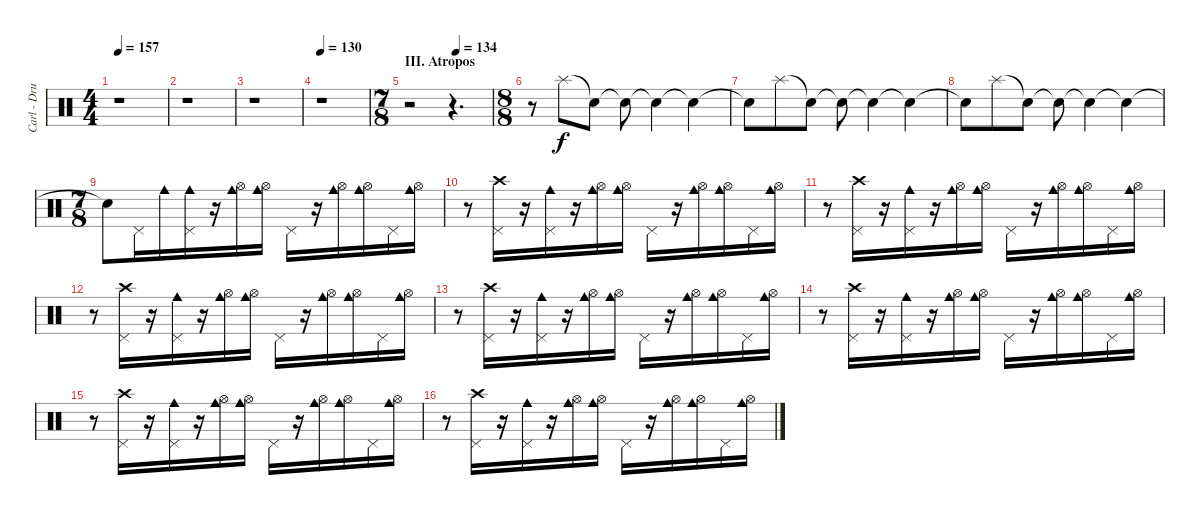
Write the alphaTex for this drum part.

\track ("Carl - Drums" "Carl - Dru") {instrument percussion}
\staff {score}
\articulation defaults
\ts (4 4)
\tempo 157
\clef neutral
\ks c
r.1{dy f} |
r.1 |
r.1 |
\tempo 130
r.1 |
\ts (7 8)
\section ("" "III. Atropos")
\tempo (134 0.5714285714285714)
r.2 r.4{d} |
\ts (8 8)
r.8 "Splash (hit)".8 "Snare (hit)"{t}.8 "Snare (hit)"{t}.8 "Snare (hit)"{t}.4 "Snare (hit)"{t}.4 |
"Snare (hit)"{t}.8 "Splash (hit)".8 "Snare (hit)"{t}.8 "Snare (hit)"{t}.8 "Snare (hit)"{t}.4 "Snare (hit)"{t}.4 |
"Snare (hit)"{t}.8 "Splash (hit)".8 "Snare (hit)"{t}.8 "Snare (hit)"{t}.8 "Snare (hit)"{t}.4 "Snare (hit)"{t}.4 |
\ts (7 8)
"Snare (hit)"{t}.8 "Pedal Hi-Hat (hit)".16 "Cowbell medium (hit)".16 ("Pedal Hi-Hat (hit)" "Cowbell medium (hit)").16 r.16 ("Hi-Hat (open)" "Cowbell medium (hit)").16 ("Hi-Hat (open)" "Cowbell medium (hit)").16 "Pedal Hi-Hat (hit)".16 r.16 ("Hi-Hat (open)" "Cowbell medium (hit)").16 ("Hi-Hat (open)" "Cowbell medium (hit)").16 "Pedal Hi-Hat (hit)".16 ("Hi-Hat (open)" "Cowbell medium (hit)").16 |
r.8 ("Crash high (hit)" "Pedal Hi-Hat (hit)").16 r.16 ("Pedal Hi-Hat (hit)" "Cowbell medium (hit)").16 r.16 ("Hi-Hat (open)" "Cowbell medium (hit)").16 ("Hi-Hat (open)" "Cowbell medium (hit)").16 "Pedal Hi-Hat (hit)".16 r.16 ("Hi-Hat (open)" "Cowbell medium (hit)").16 ("Hi-Hat (open)" "Cowbell medium (hit)").16 "Pedal Hi-Hat (hit)".16 ("Hi-Hat (open)" "Cowbell medium (hit)").16 |
r.8 ("Crash high (hit)" "Pedal Hi-Hat (hit)").16 r.16 ("Pedal Hi-Hat (hit)" "Cowbell medium (hit)").16 r.16 ("Hi-Hat (open)" "Cowbell medium (hit)").16 ("Hi-Hat (open)" "Cowbell medium (hit)").16 "Pedal Hi-Hat (hit)".16 r.16 ("Hi-Hat (open)" "Cowbell medium (hit)").16 ("Hi-Hat (open)" "Cowbell medium (hit)").16 "Pedal Hi-Hat (hit)".16 ("Hi-Hat (open)" "Cowbell medium (hit)").16 |
r.8 ("Crash high (hit)" "Pedal Hi-Hat (hit)").16 r.16 ("Pedal Hi-Hat (hit)" "Cowbell medium (hit)").16 r.16 ("Hi-Hat (open)" "Cowbell medium (hit)").16 ("Hi-Hat (open)" "Cowbell medium (hit)").16 "Pedal Hi-Hat (hit)".16 r.16 ("Hi-Hat (open)" "Cowbell medium (hit)").16 ("Hi-Hat (open)" "Cowbell medium (hit)").16 "Pedal Hi-Hat (hit)".16 ("Hi-Hat (open)" "Cowbell medium (hit)").16 |
r.8 ("Crash high (hit)" "Pedal Hi-Hat (hit)").16 r.16 ("Pedal Hi-Hat (hit)" "Cowbell medium (hit)").16 r.16 ("Hi-Hat (open)" "Cowbell medium (hit)").16 ("Hi-Hat (open)" "Cowbell medium (hit)").16 "Pedal Hi-Hat (hit)".16 r.16 ("Hi-Hat (open)" "Cowbell medium (hit)").16 ("Hi-Hat (open)" "Cowbell medium (hit)").16 "Pedal Hi-Hat (hit)".16 ("Hi-Hat (open)" "Cowbell medium (hit)").16 |
r.8 ("Crash high (hit)" "Pedal Hi-Hat (hit)").16 r.16 ("Pedal Hi-Hat (hit)" "Cowbell medium (hit)").16 r.16 ("Hi-Hat (open)" "Cowbell medium (hit)").16 ("Hi-Hat (open)" "Cowbell medium (hit)").16 "Pedal Hi-Hat (hit)".16 r.16 ("Hi-Hat (open)" "Cowbell medium (hit)").16 ("Hi-Hat (open)" "Cowbell medium (hit)").16 "Pedal Hi-Hat (hit)".16 ("Hi-Hat (open)" "Cowbell medium (hit)").16 |
r.8 ("Crash high (hit)" "Pedal Hi-Hat (hit)").16 r.16 ("Pedal Hi-Hat (hit)" "Cowbell medium (hit)").16 r.16 ("Hi-Hat (open)" "Cowbell medium (hit)").16 ("Hi-Hat (open)" "Cowbell medium (hit)").16 "Pedal Hi-Hat (hit)".16 r.16 ("Hi-Hat (open)" "Cowbell medium (hit)").16 ("Hi-Hat (open)" "Cowbell medium (hit)").16 "Pedal Hi-Hat (hit)".16 ("Hi-Hat (open)" "Cowbell medium (hit)").16 |
r.8 ("Crash high (hit)" "Pedal Hi-Hat (hit)").16 r.16 ("Pedal Hi-Hat (hit)" "Cowbell medium (hit)").16 r.16 ("Hi-Hat (open)" "Cowbell medium (hit)").16 ("Hi-Hat (open)" "Cowbell medium (hit)").16 "Pedal Hi-Hat (hit)".16 r.16 ("Hi-Hat (open)" "Cowbell medium (hit)").16 ("Hi-Hat (open)" "Cowbell medium (hit)").16 "Pedal Hi-Hat (hit)".16 ("Hi-Hat (open)" "Cowbell medium (hit)").16
